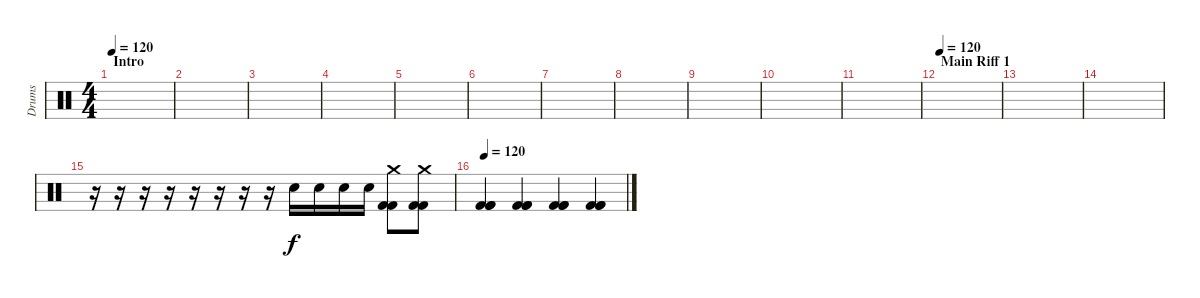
\track ("Drums" "Drums") {instrument percussion}
\staff {score}
\articulation defaults
\ts (4 4)
\section ("" "Intro")
\tempo 120
\tempo 100
\tempo 120
\clef neutral
\ks c
|
|
|
|
|
|
|
|
|
|
|
\section ("" "Main Riff 1")
\tempo 120
|
|
|
r.16 r.16 r.16 r.16 r.16 r.16 r.16 r.16 "Electric Snare (hit)".16 "Electric Snare (hit)".16 "Electric Snare (hit)".16 "Electric Snare (hit)".16 ("Crash medium (hit)" "Kick (hit) 2" "Kick (hit) 2").8 ("Kick (hit) 2" "Kick (hit) 2" "Crash medium (hit)").8 |
\tempo 120
("Kick (hit) 2" "Kick (hit) 2" "Kick (hit) 2").4 ("Kick (hit) 2" "Kick (hit) 2" "Kick (hit) 2").4 ("Kick (hit) 2" "Kick (hit) 2" "Kick (hit) 2").4 ("Kick (hit) 2" "Kick (hit) 2" "Kick (hit) 2").4
